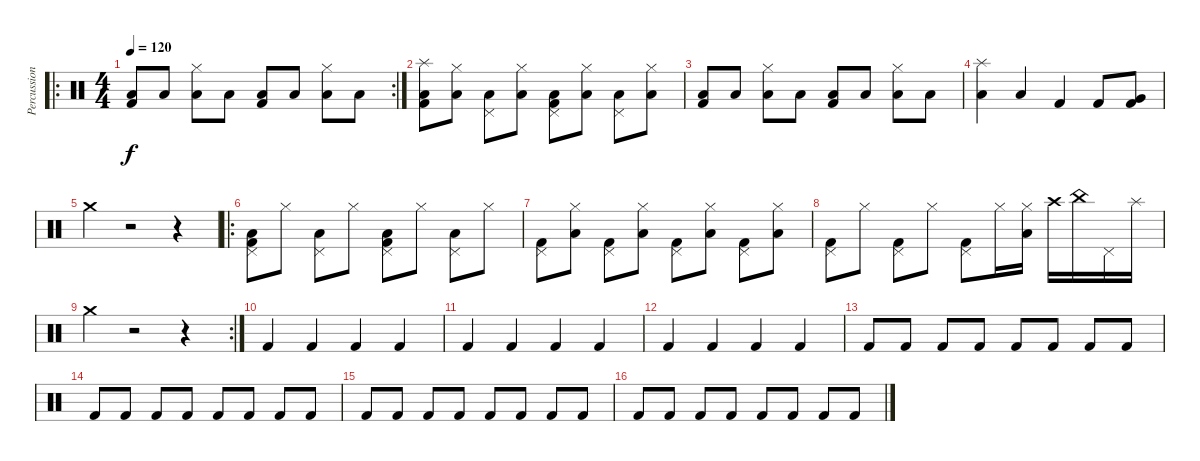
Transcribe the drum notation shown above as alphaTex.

\track ("Percussion" "Percussion") {instrument percussion}
\staff {score}
\articulation defaults
\ro
\rc 2
\ts (4 4)
\tempo 120
\clef neutral
\ks c
("Kick (hit) 2" "Low Tom (hit)").8{dy f} "Low Floor Tom (hit)".8 ("Hi-Hat (closed)" "Low Tom (hit)").8 "Low Floor Tom (hit)".8 ("Kick (hit) 2" "Low Tom (hit)").8 "Low Floor Tom (hit)".8 ("Hi-Hat (closed)" "Low Tom (hit)").8 "Low Floor Tom (hit)".8 |
("Kick (hit) 2" "Low Tom (hit)" "Splash (hit)").8 ("Hi-Hat (closed)" "Low Floor Tom (hit)").8 ("Low Tom (hit)" "Pedal Hi-Hat (hit)").8 ("Hi-Hat (closed)" "Low Floor Tom (hit)").8 ("Kick (hit) 2" "Low Tom (hit)" "Pedal Hi-Hat (hit)").8 ("Hi-Hat (closed)" "Low Floor Tom (hit)").8 ("Low Tom (hit)" "Pedal Hi-Hat (hit)").8 ("Hi-Hat (closed)" "Low Floor Tom (hit)").8 |
("Low Tom (hit)" "Kick (hit) 2").8 "Low Floor Tom (hit)".8 ("Hi-Hat (closed)" "Low Tom (hit)").8 "Low Floor Tom (hit)".8 ("Low Tom (hit)" "Kick (hit) 2").8 "Low Floor Tom (hit)".8 ("Hi-Hat (closed)" "Low Tom (hit)").8 "Low Floor Tom (hit)".8 |
("Low Tom (hit)" "Splash (hit)").4 "Low Tom (hit)".4 "Kick (hit) 2".4 "Kick (hit) 2".8 ("Kick (hit) 2" "Very Low Tom (hit)").8 |
"Crash medium (hit)".4 r.2 r.4 |
\ro
("Pedal Hi-Hat (hit)" "Kick (hit) 2" "Low Tom (hit)").8 "Hi-Hat (closed)".8 ("Pedal Hi-Hat (hit)" "Low Tom (hit)").8 "Hi-Hat (closed)".8 ("Pedal Hi-Hat (hit)" "Kick (hit) 2" "Low Tom (hit)").8 "Hi-Hat (closed)".8 ("Pedal Hi-Hat (hit)" "Low Tom (hit)").8 "Hi-Hat (closed)".8 |
("Kick (hit) 2" "Pedal Hi-Hat (hit)").8 ("Hi-Hat (closed)" "Low Floor Tom (hit)").8 ("Kick (hit) 2" "Pedal Hi-Hat (hit)").8 ("Hi-Hat (closed)" "Low Floor Tom (hit)").8 ("Kick (hit) 2" "Pedal Hi-Hat (hit)").8 ("Hi-Hat (closed)" "Low Floor Tom (hit)").8 ("Kick (hit) 2" "Pedal Hi-Hat (hit)").8 ("Hi-Hat (closed)" "Low Floor Tom (hit)").8 |
("Pedal Hi-Hat (hit)" "Kick (hit) 2").8 "Hi-Hat (closed)".8 ("Pedal Hi-Hat (hit)" "Kick (hit) 2").8 "Hi-Hat (closed)".8 ("Pedal Hi-Hat (hit)" "Kick (hit) 2").8 "Hi-Hat (closed)".16 ("Hi-Hat (closed)" "Low Floor Tom (hit)").16 "Crash high (hit)".16 "China (hit)".16 "Pedal Hi-Hat (hit)".16 "Splash (hit)".16 |
\rc 2 "Crash medium (hit)".4
r.2 r.4 |
"Kick (hit) 2".4 "Kick (hit) 2".4 "Kick (hit) 2".4 "Kick (hit) 2".4 |
"Kick (hit) 2".4 "Kick (hit) 2".4 "Kick (hit) 2".4 "Kick (hit) 2".4 |
"Kick (hit) 2".4 "Kick (hit) 2".4 "Kick (hit) 2".4 "Kick (hit) 2".4 |
"Kick (hit) 2".8 "Kick (hit) 2".8 "Kick (hit) 2".8 "Kick (hit) 2".8 "Kick (hit) 2".8 "Kick (hit) 2".8 "Kick (hit) 2".8 "Kick (hit) 2".8 |
"Kick (hit) 2".8 "Kick (hit) 2".8 "Kick (hit) 2".8 "Kick (hit) 2".8 "Kick (hit) 2".8 "Kick (hit) 2".8 "Kick (hit) 2".8 "Kick (hit) 2".8 |
"Kick (hit) 2".8 "Kick (hit) 2".8 "Kick (hit) 2".8 "Kick (hit) 2".8 "Kick (hit) 2".8 "Kick (hit) 2".8 "Kick (hit) 2".8 "Kick (hit) 2".8 |
"Kick (hit) 2".8 "Kick (hit) 2".8 "Kick (hit) 2".8 "Kick (hit) 2".8 "Kick (hit) 2".8 "Kick (hit) 2".8 "Kick (hit) 2".8 "Kick (hit) 2".8
